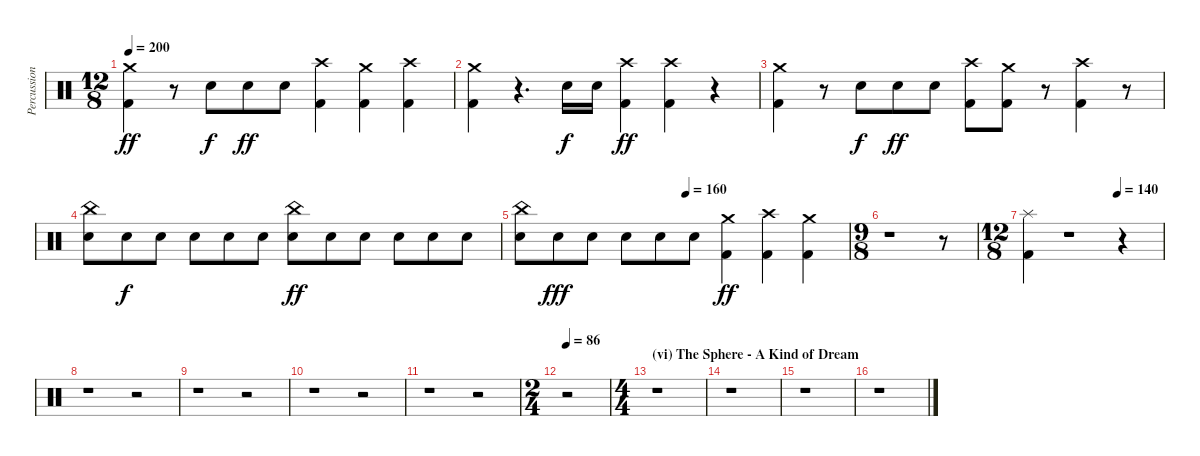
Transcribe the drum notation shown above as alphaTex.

\track ("Percussion" "Percussion") {instrument percussion}
\staff {score}
\articulation defaults
\ts (12 8)
\tempo 200
\clef neutral
\ks c
("Kick (hit) 2" "Crash medium (hit)").4{dy ff} r.8 "Snare (hit) 2".8{dy f} "Snare (hit) 2".8{dy ff} "Snare (hit) 2".8 ("Kick (hit) 2" "Crash high (hit)").4 ("Kick (hit) 2" "Crash medium (hit)").4 ("Kick (hit) 2" "Crash high (hit)").4 |
("Kick (hit) 2" "Crash medium (hit)").4 r.4{d} "Snare (hit) 2".16{dy f} "Snare (hit) 2".16 ("Kick (hit) 2" "Crash high (hit)").4{dy ff} ("Kick (hit) 2" "Crash high (hit)").4 r.4 |
("Kick (hit) 2" "Crash medium (hit)").4 r.8 "Snare (hit) 2".8{dy f} "Snare (hit) 2".8{dy ff} "Snare (hit) 2".8 ("Kick (hit) 2" "Crash high (hit)").8 ("Kick (hit) 2" "Crash medium (hit)").8 r.8 ("Kick (hit) 2" "Crash high (hit)").4 r.8 |
("Snare (hit) 2" "China (hit)").8 "Snare (hit) 2".8{dy f} "Snare (hit) 2".8 "Snare (hit) 2".8 "Snare (hit) 2".8 "Snare (hit) 2".8 ("Snare (hit) 2" "China (hit)").8{dy ff} "Snare (hit) 2".8 "Snare (hit) 2".8 "Snare (hit) 2".8 "Snare (hit) 2".8 "Snare (hit) 2".8 |
\tempo (160 0.5)
("Snare (hit) 2" "China (hit)").8 "Snare (hit) 2".8{dy fff} "Snare (hit) 2".8 "Snare (hit) 2".8 "Snare (hit) 2".8 "Snare (hit) 2".8 ("Kick (hit) 2" "Crash medium (hit)").4{dy ff} ("Kick (hit) 2" "Crash high (hit)").4 ("Kick (hit) 2" "Crash medium (hit)").4 |
\ts (9 8)
r.1 r.8 |
\ts (12 8)
\tempo (140 0.6666666666666666)
("Kick (hit) 2" "Splash (hit)").4 r.1 r.4 |
r.1 r.2 |
r.1 r.2 |
r.1 r.2 |
r.1 r.2 |
\ts (2 4)
\tempo 86
r.2 |
\ts (4 4)
\section ("" "(vi) The Sphere - A Kind of Dream")
r.1 |
r.1 |
r.1 |
r.1
